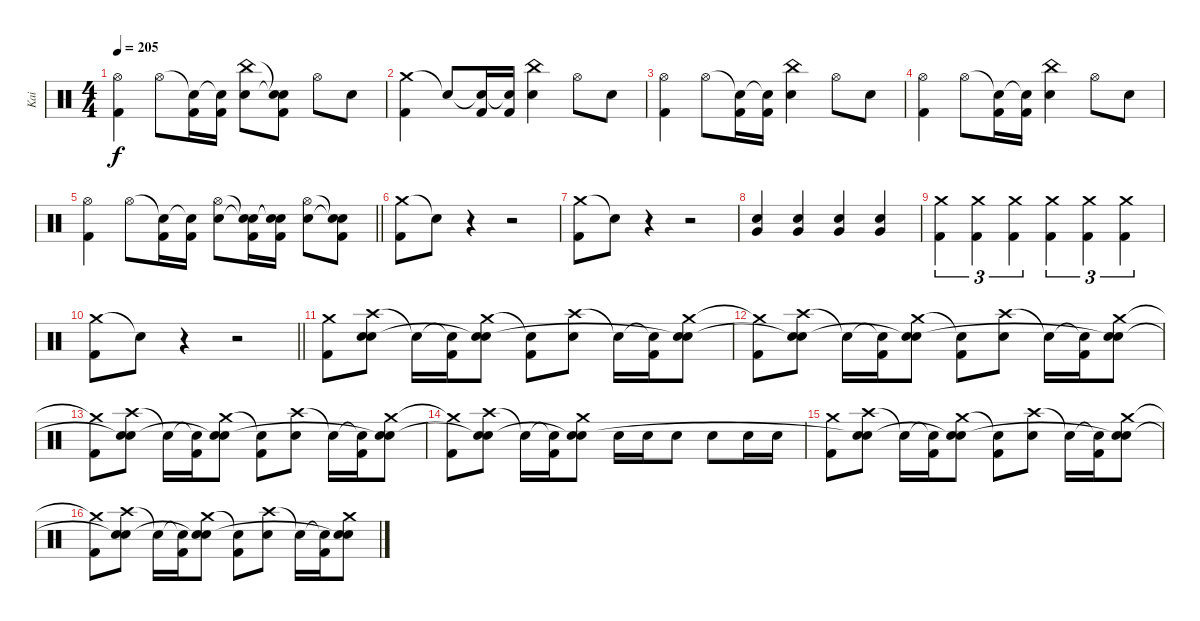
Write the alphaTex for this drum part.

\track ("Kai" "Kai") {instrument percussion}
\staff {score}
\articulation defaults
\ts (4 4)
\tempo 205
\clef neutral
\ks c
("Hi-Hat (open)" "Kick (hit) 2").4{dy f} "Hi-Hat (open)".8 ("Snare (hit)"{t} "Kick (hit) 2").16 ("Snare (hit)"{t} "Kick (hit) 2").16 ("China (hit)" "Snare (hit) 2").8 ("Snare (hit)"{t} "Snare (hit)"{t} "Kick (hit) 2").8 "Hi-Hat (open)".8 "Snare (hit) 2".8 |
("Crash medium (hit)" "Kick (hit) 2").4 "Snare (hit)"{t}.8 ("Snare (hit)"{t} "Kick (hit) 2").16 ("Snare (hit)"{t} "Kick (hit) 2").16 ("China (hit)" "Snare (hit) 2").4 "Hi-Hat (open)".8 "Snare (hit) 2".8 |
("Hi-Hat (open)" "Kick (hit) 2").4 "Hi-Hat (open)".8 ("Snare (hit)"{t} "Kick (hit) 2").16 ("Snare (hit)"{t} "Kick (hit) 2").16 ("China (hit)" "Snare (hit) 2").4 "Hi-Hat (open)".8 "Snare (hit) 2".8 |
("Hi-Hat (open)" "Kick (hit) 2").4 "Hi-Hat (open)".8 ("Snare (hit)"{t} "Kick (hit) 2").16 ("Snare (hit)"{t} "Kick (hit) 2").16 ("China (hit)" "Snare (hit) 2").4 "Hi-Hat (open)".8 "Snare (hit) 2".8 |
\barLineRight lightlight
("Hi-Hat (open)" "Kick (hit) 2").4 "Hi-Hat (open)".8 ("Snare (hit)"{t} "Kick (hit) 2").16 ("Snare (hit)"{t} "Kick (hit) 2").16 ("Hi-Hat (open)" "Snare (hit) 2").8 ("Snare (hit)"{t} "Snare (hit)"{t} "Kick (hit) 2").16 ("Snare (hit)"{t} "Snare (hit)"{t} "Kick (hit) 2").16 ("Hi-Hat (open)" "Snare (hit) 2").8 ("Snare (hit)"{t} "Snare (hit)"{t} "Kick (hit) 2").8 |
("Crash medium (hit)" "Kick (hit) 2").8 "Snare (hit)"{t}.8 r.4 r.2 |
("Crash medium (hit)" "Kick (hit) 2").8 "Snare (hit)"{t}.8 r.4 r.2 |
("Snare (hit) 2" "Very Low Tom (hit)").4 ("Snare (hit) 2" "Very Low Tom (hit)").4 ("Snare (hit) 2" "Very Low Tom (hit)").4 ("Snare (hit) 2" "Very Low Tom (hit)").4 |
("Crash medium (hit)" "Kick (hit) 2").4{tu (3 2)} ("Crash medium (hit)" "Kick (hit) 2").4{tu (3 2)} ("Crash medium (hit)" "Kick (hit) 2").4{tu (3 2)} ("Crash medium (hit)" "Kick (hit) 2").4{tu (3 2)} ("Crash medium (hit)" "Kick (hit) 2").4{tu (3 2)} ("Crash medium (hit)" "Kick (hit) 2").4{tu (3 2)} |
\barLineRight lightlight
("Crash medium (hit)" "Kick (hit) 2").8 "Snare (hit)"{t}.8 r.4 r.2 |
("Crash medium (hit)" "Kick (hit) 2").8 ("Crash high (hit)" "Snare (hit) 2" "Snare (hit)").8 "Snare (hit)"{t}.16 ("Snare (hit)"{t} "Kick (hit) 2").16 ("Crash medium (hit)" "Snare (hit) 2" "Snare (hit)"{t}).8 ("Snare (hit)"{t} "Kick (hit) 2").8 ("Crash high (hit)" "Snare (hit) 2").8 "Snare (hit)"{t}.16 ("Snare (hit)"{t} "Kick (hit) 2").16 ("Crash medium (hit)" "Snare (hit) 2" "Snare (hit)"{t}).8 |
("Crash medium (hit)"{t} "Kick (hit) 2").8 ("Crash high (hit)" "Snare (hit) 2" "Snare (hit)"{t}).8 "Snare (hit)"{t}.16 ("Snare (hit)"{t} "Kick (hit) 2").16 ("Crash medium (hit)" "Snare (hit) 2" "Snare (hit)"{t}).8 ("Snare (hit)"{t} "Kick (hit) 2").8 ("Crash high (hit)" "Snare (hit) 2").8 "Snare (hit)"{t}.16 ("Snare (hit)"{t} "Kick (hit) 2").16 ("Crash medium (hit)" "Snare (hit) 2" "Snare (hit)"{t}).8 |
("Crash medium (hit)"{t} "Kick (hit) 2").8 ("Crash high (hit)" "Snare (hit) 2" "Snare (hit)"{t}).8 "Snare (hit)"{t}.16 ("Snare (hit)"{t} "Kick (hit) 2").16 ("Crash medium (hit)" "Snare (hit) 2" "Snare (hit)"{t}).8 ("Snare (hit)"{t} "Kick (hit) 2").8 ("Crash high (hit)" "Snare (hit) 2").8 "Snare (hit)"{t}.16 ("Snare (hit)"{t} "Kick (hit) 2").16 ("Crash medium (hit)" "Snare (hit) 2" "Snare (hit)"{t}).8 |
("Crash medium (hit)"{t} "Kick (hit) 2").8 ("Crash high (hit)" "Snare (hit) 2" "Snare (hit)"{t}).8 "Snare (hit)"{t}.16 ("Snare (hit)"{t} "Kick (hit) 2").16 ("Crash medium (hit)" "Snare (hit) 2" "Snare (hit)"{t}).8 "Snare (hit) 2".16 "Snare (hit) 2".16 "Snare (hit) 2".8 "Snare (hit) 2".8 "Snare (hit) 2".16 "Snare (hit) 2".16 |
("Crash medium (hit)" "Kick (hit) 2").8 ("Crash high (hit)" "Snare (hit) 2" "Snare (hit)"{t}).8 "Snare (hit)"{t}.16 ("Snare (hit)"{t} "Kick (hit) 2").16 ("Crash medium (hit)" "Snare (hit) 2" "Snare (hit)"{t}).8 ("Snare (hit)"{t} "Kick (hit) 2").8 ("Crash high (hit)" "Snare (hit) 2").8 "Snare (hit)"{t}.16 ("Snare (hit)"{t} "Kick (hit) 2").16 ("Crash medium (hit)" "Snare (hit) 2" "Snare (hit)"{t}).8 |
("Crash medium (hit)"{t} "Kick (hit) 2").8 ("Crash high (hit)" "Snare (hit) 2" "Snare (hit)"{t}).8 "Snare (hit)"{t}.16 ("Snare (hit)"{t} "Kick (hit) 2").16 ("Crash medium (hit)" "Snare (hit) 2" "Snare (hit)"{t}).8 ("Snare (hit)"{t} "Kick (hit) 2").8 ("Crash high (hit)" "Snare (hit) 2").8 "Snare (hit)"{t}.16 ("Snare (hit)"{t} "Kick (hit) 2").16 ("Crash medium (hit)" "Snare (hit) 2" "Snare (hit)"{t}).8
